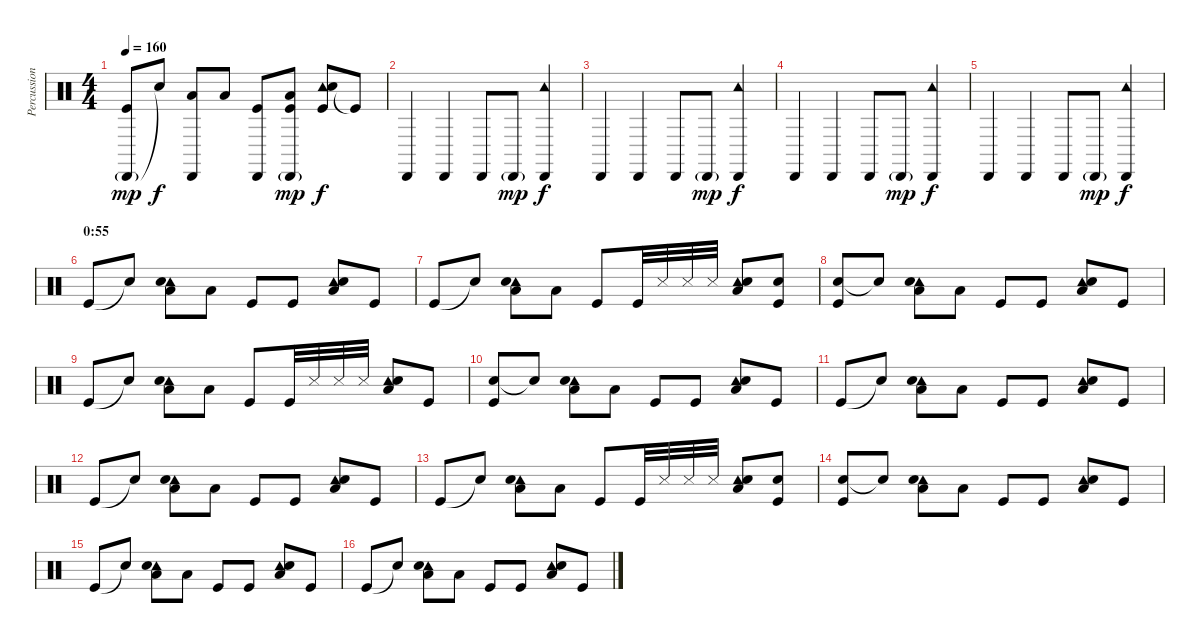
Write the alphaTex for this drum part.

\track ("Percussion" "Percussion") {instrument percussion}
\staff {score}
\articulation defaults
\ts (4 4)
\tempo 160
\clef neutral
\ks c
("Cabasa (hit)"{g} "Kick (hit)").8{dy mp} "Snare (hit)"{t}.8{dy f} ("Cabasa (hit)" "Low Tom (hit)").8 "Low Tom (hit)".8 ("Cabasa (hit)" "Kick (hit)").8 ("Cabasa (hit)"{g} "Low Tom (hit)" "Kick (hit)"{t}).8{dy mp} ("Tambourine (hit)" "Hand Clap (hit)" "Kick (hit)").8{dy f} "Kick (hit)"{t}.8 |
"Cabasa (hit)".4 "Cabasa (hit)".4 "Cabasa (hit)".8 "Cabasa (hit)"{g}.8{dy mp} ("Cabasa (hit)" "Tambourine (hit)").4{dy f} |
"Cabasa (hit)".4 "Cabasa (hit)".4 "Cabasa (hit)".8 "Cabasa (hit)"{g}.8{dy mp} ("Cabasa (hit)" "Tambourine (hit)").4{dy f} |
"Cabasa (hit)".4 "Cabasa (hit)".4 "Cabasa (hit)".8 "Cabasa (hit)"{g}.8{dy mp} ("Cabasa (hit)" "Tambourine (hit)").4{dy f} |
"Cabasa (hit)".4 "Cabasa (hit)".4 "Cabasa (hit)".8 "Cabasa (hit)"{g}.8{dy mp} ("Cabasa (hit)" "Tambourine (hit)").4{dy f} |
\section ("" "0:55")
"Kick (hit)".8 "Snare (hit)"{t}.8 ("Tambourine (hit)" "Hand Clap (hit)" "Low Tom (hit)").8 "Low Tom (hit)".8 "Kick (hit)".8 "Kick (hit)".8 ("Tambourine (hit)" "Hand Clap (hit)" "Low Tom (hit)").8 "Kick (hit)".8 |
"Kick (hit)".8 "Snare (hit)"{t}.8 ("Tambourine (hit)" "Hand Clap (hit)" "Low Tom (hit)").8 "Low Tom (hit)".8 "Kick (hit)".8 "Kick (hit)".32 "Snare (side stick) 3".32 "Snare (side stick) 3".32 "Snare (side stick) 3".32 ("Tambourine (hit)" "Hand Clap (hit)" "Low Tom (hit)").8 ("Hand Clap (hit)" "Kick (hit)").8 |
("Hand Clap (hit)" "Kick (hit)").8 "Snare (hit)"{t}.8 ("Tambourine (hit)" "Hand Clap (hit)" "Low Tom (hit)").8 "Low Tom (hit)".8 "Kick (hit)".8 "Kick (hit)".8 ("Tambourine (hit)" "Hand Clap (hit)" "Low Tom (hit)").8 "Kick (hit)".8 |
"Kick (hit)".8 "Snare (hit)"{t}.8 ("Tambourine (hit)" "Hand Clap (hit)" "Low Tom (hit)").8 "Low Tom (hit)".8 "Kick (hit)".8 "Kick (hit)".32 "Snare (side stick) 3".32 "Snare (side stick) 3".32 "Snare (side stick) 3".32 ("Tambourine (hit)" "Hand Clap (hit)" "Low Tom (hit)").8 "Kick (hit)".8 |
("Hand Clap (hit)" "Kick (hit)").8 "Snare (hit)"{t}.8 ("Tambourine (hit)" "Hand Clap (hit)" "Low Tom (hit)").8 "Low Tom (hit)".8 "Kick (hit)".8 "Kick (hit)".8 ("Tambourine (hit)" "Hand Clap (hit)" "Low Tom (hit)").8 "Kick (hit)".8 |
"Kick (hit)".8 "Snare (hit)"{t}.8 ("Tambourine (hit)" "Hand Clap (hit)" "Low Tom (hit)").8 "Low Tom (hit)".8 "Kick (hit)".8 "Kick (hit)".8 ("Tambourine (hit)" "Hand Clap (hit)" "Low Tom (hit)").8 "Kick (hit)".8 |
"Kick (hit)".8 "Snare (hit)"{t}.8 ("Tambourine (hit)" "Hand Clap (hit)" "Low Tom (hit)").8 "Low Tom (hit)".8 "Kick (hit)".8 "Kick (hit)".8 ("Tambourine (hit)" "Hand Clap (hit)" "Low Tom (hit)").8 "Kick (hit)".8 |
"Kick (hit)".8 "Snare (hit)"{t}.8 ("Tambourine (hit)" "Hand Clap (hit)" "Low Tom (hit)").8 "Low Tom (hit)".8 "Kick (hit)".8 "Kick (hit)".32 "Snare (side stick) 3".32 "Snare (side stick) 3".32 "Snare (side stick) 3".32 ("Tambourine (hit)" "Hand Clap (hit)" "Low Tom (hit)").8 ("Hand Clap (hit)" "Kick (hit)").8 |
("Hand Clap (hit)" "Kick (hit)").8 "Snare (hit)"{t}.8 ("Tambourine (hit)" "Hand Clap (hit)" "Low Tom (hit)").8 "Low Tom (hit)".8 "Kick (hit)".8 "Kick (hit)".8 ("Tambourine (hit)" "Hand Clap (hit)" "Low Tom (hit)").8 "Kick (hit)".8 |
"Kick (hit)".8 "Snare (hit)"{t}.8 ("Tambourine (hit)" "Hand Clap (hit)" "Low Tom (hit)").8 "Low Tom (hit)".8 "Kick (hit)".8 "Kick (hit)".8 ("Tambourine (hit)" "Hand Clap (hit)" "Low Tom (hit)").8 "Kick (hit)".8 |
"Kick (hit)".8 "Snare (hit)"{t}.8 ("Tambourine (hit)" "Hand Clap (hit)" "Low Tom (hit)").8 "Low Tom (hit)".8 "Kick (hit)".8 "Kick (hit)".8 ("Tambourine (hit)" "Hand Clap (hit)" "Low Tom (hit)").8 "Kick (hit)".8
